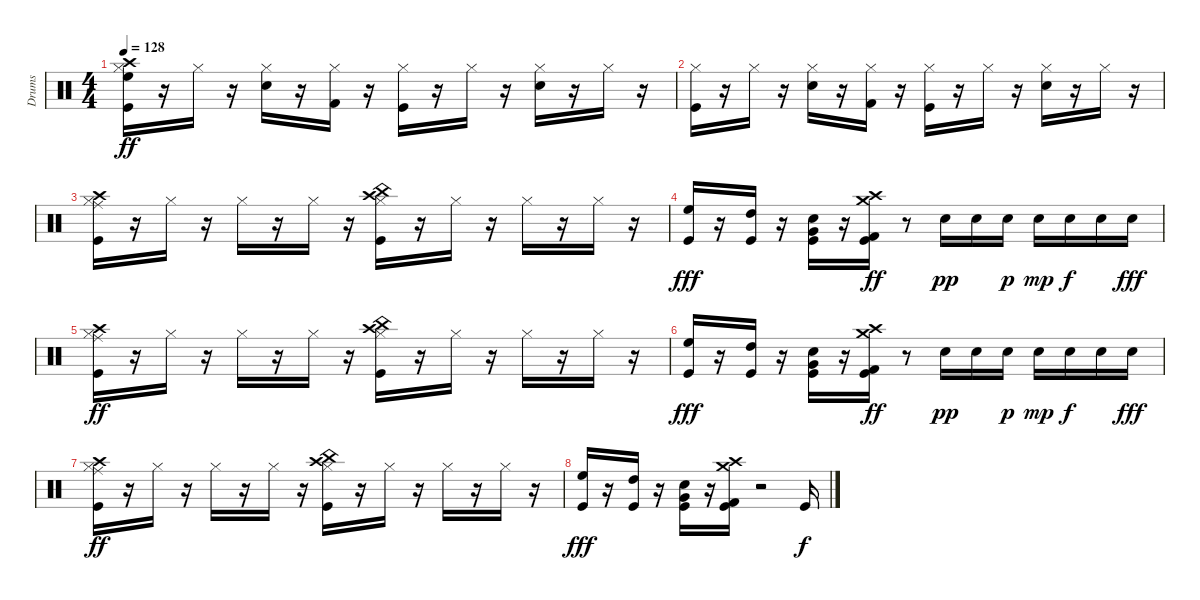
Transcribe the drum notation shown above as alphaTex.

\track ("Drums" "Drums") {instrument percussion}
\staff {score}
\articulation defaults
\ts (4 4)
\tempo 128
\clef neutral
\ks c
("Kick (hit)" "Hi-Hat (closed)" "Crash high (hit)" "High Floor Tom (hit)").16{dy ff} r.16 "Hi-Hat (closed)".16 r.16 ("Snare (hit) 2" "Hi-Hat (closed)").16 r.16 ("Kick (hit) 2" "Hi-Hat (closed)").16 r.16 ("Kick (hit)" "Hi-Hat (closed)").16 r.16 "Hi-Hat (closed)".16 r.16 ("Snare (hit) 2" "Hi-Hat (closed)").16 r.16 "Hi-Hat (closed)".16 r.16 |
("Kick (hit)" "Hi-Hat (closed)").16 r.16 "Hi-Hat (closed)".16 r.16 ("Snare (hit) 2" "Hi-Hat (closed)").16 r.16 ("Kick (hit) 2" "Hi-Hat (closed)").16 r.16 ("Kick (hit)" "Hi-Hat (closed)").16 r.16 "Hi-Hat (closed)".16 r.16 ("Snare (hit) 2" "Hi-Hat (closed)").16 r.16 "Hi-Hat (closed)".16 r.16 |
("Kick (hit)" "Hi-Hat (closed)" "Crash high (hit)" "Ride (middle)").16 r.16 "Hi-Hat (closed)".16 r.16 "Hi-Hat (closed)".16 r.16 "Hi-Hat (closed)".16 r.16 ("Kick (hit)" "Hi-Hat (closed)" "Crash high (hit)" "China (hit)").16 r.16 "Hi-Hat (closed)".16 r.16 "Hi-Hat (closed)".16 r.16 "Hi-Hat (closed)".16 r.16 |
("Kick (hit)" "High Floor Tom (hit)").16{dy fff} r.16 ("Kick (hit)" "High Tom (hit)").16 r.16 ("Kick (hit)" "Snare (hit) 2" "Very Low Tom (hit)").16 r.16 ("Kick (hit)" "Kick (hit) 2" "Crash high (hit)" "Crash medium (hit)").16{dy ff} r.8 "Electric Snare (hit)".16{dy pp} "Electric Snare (hit)".16 "Electric Snare (hit)".16{dy p} "Electric Snare (hit)".16{dy mp} "Electric Snare (hit)".16{dy f} "Electric Snare (hit)".16 "Electric Snare (hit)".16{dy fff} |
("Kick (hit)" "Hi-Hat (closed)" "Crash high (hit)" "Ride (middle)").16{dy ff} r.16 "Hi-Hat (closed)".16 r.16 "Hi-Hat (closed)".16 r.16 "Hi-Hat (closed)".16 r.16 ("Kick (hit)" "Hi-Hat (closed)" "Crash high (hit)" "China (hit)").16 r.16 "Hi-Hat (closed)".16 r.16 "Hi-Hat (closed)".16 r.16 "Hi-Hat (closed)".16 r.16 |
("Kick (hit)" "High Floor Tom (hit)").16{dy fff} r.16 ("Kick (hit)" "High Tom (hit)").16 r.16 ("Kick (hit)" "Snare (hit) 2" "Very Low Tom (hit)").16 r.16 ("Kick (hit)" "Kick (hit) 2" "Crash high (hit)" "Crash medium (hit)").16{dy ff} r.8 "Electric Snare (hit)".16{dy pp} "Electric Snare (hit)".16 "Electric Snare (hit)".16{dy p} "Electric Snare (hit)".16{dy mp} "Electric Snare (hit)".16{dy f} "Electric Snare (hit)".16 "Electric Snare (hit)".16{dy fff} |
("Kick (hit)" "Hi-Hat (closed)" "Crash high (hit)" "Ride (middle)").16{dy ff} r.16 "Hi-Hat (closed)".16 r.16 "Hi-Hat (closed)".16 r.16 "Hi-Hat (closed)".16 r.16 ("Kick (hit)" "Hi-Hat (closed)" "Crash high (hit)" "China (hit)").16 r.16 "Hi-Hat (closed)".16 r.16 "Hi-Hat (closed)".16 r.16 "Hi-Hat (closed)".16 r.16 |
("Kick (hit)" "High Floor Tom (hit)").16{dy fff} r.16 ("Kick (hit)" "High Tom (hit)").16 r.16 ("Kick (hit)" "Snare (hit) 2" "Very Low Tom (hit)").16 r.16 ("Kick (hit)" "Kick (hit) 2" "Crash high (hit)" "Crash medium (hit)").16 r.2 "Kick (hit)".16{dy f}
